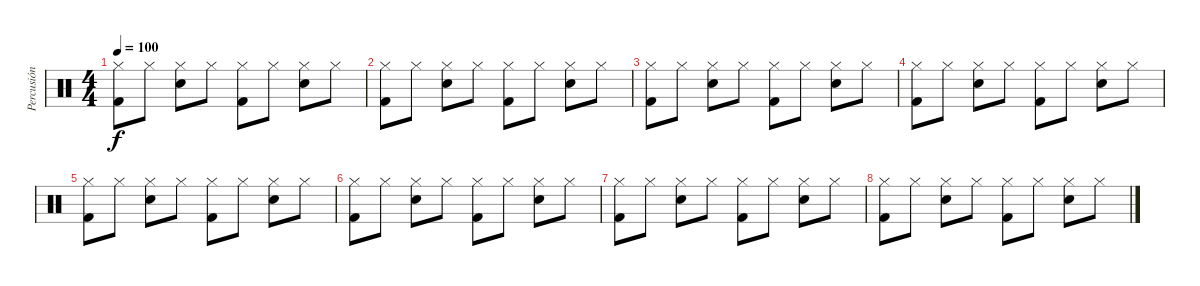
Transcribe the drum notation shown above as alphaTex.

\track ("Percusión" "Percusión") {instrument percussion}
\staff {score}
\articulation defaults
\ts (4 4)
\tempo 100
\clef neutral
\ks c
("Hi-Hat (closed)" "Kick (hit) 2").8{dy f} "Hi-Hat (closed)".8 ("Hi-Hat (closed)" "Electric Snare (hit)").8 "Hi-Hat (closed)".8 ("Hi-Hat (closed)" "Kick (hit) 2").8 "Hi-Hat (closed)".8 ("Hi-Hat (closed)" "Electric Snare (hit)").8 "Hi-Hat (closed)".8 |
("Hi-Hat (closed)" "Kick (hit) 2").8 "Hi-Hat (closed)".8 ("Hi-Hat (closed)" "Electric Snare (hit)").8 "Hi-Hat (closed)".8 ("Hi-Hat (closed)" "Kick (hit) 2").8 "Hi-Hat (closed)".8 ("Hi-Hat (closed)" "Electric Snare (hit)").8 "Hi-Hat (closed)".8 |
("Hi-Hat (closed)" "Kick (hit) 2").8 "Hi-Hat (closed)".8 ("Hi-Hat (closed)" "Electric Snare (hit)").8 "Hi-Hat (closed)".8 ("Hi-Hat (closed)" "Kick (hit) 2").8 "Hi-Hat (closed)".8 ("Hi-Hat (closed)" "Electric Snare (hit)").8 "Hi-Hat (closed)".8 |
("Hi-Hat (closed)" "Kick (hit) 2").8 "Hi-Hat (closed)".8 ("Hi-Hat (closed)" "Electric Snare (hit)").8 "Hi-Hat (closed)".8 ("Hi-Hat (closed)" "Kick (hit) 2").8 "Hi-Hat (closed)".8 ("Hi-Hat (closed)" "Electric Snare (hit)").8 "Hi-Hat (closed)".8 |
("Hi-Hat (closed)" "Kick (hit) 2").8 "Hi-Hat (closed)".8 ("Hi-Hat (closed)" "Electric Snare (hit)").8 "Hi-Hat (closed)".8 ("Hi-Hat (closed)" "Kick (hit) 2").8 "Hi-Hat (closed)".8 ("Hi-Hat (closed)" "Electric Snare (hit)").8 "Hi-Hat (closed)".8 |
("Hi-Hat (closed)" "Kick (hit) 2").8 "Hi-Hat (closed)".8 ("Hi-Hat (closed)" "Electric Snare (hit)").8 "Hi-Hat (closed)".8 ("Hi-Hat (closed)" "Kick (hit) 2").8 "Hi-Hat (closed)".8 ("Hi-Hat (closed)" "Electric Snare (hit)").8 "Hi-Hat (closed)".8 |
("Hi-Hat (closed)" "Kick (hit) 2").8 "Hi-Hat (closed)".8 ("Hi-Hat (closed)" "Electric Snare (hit)").8 "Hi-Hat (closed)".8 ("Hi-Hat (closed)" "Kick (hit) 2").8 "Hi-Hat (closed)".8 ("Hi-Hat (closed)" "Electric Snare (hit)").8 "Hi-Hat (closed)".8 |
("Hi-Hat (closed)" "Kick (hit) 2").8 "Hi-Hat (closed)".8 ("Hi-Hat (closed)" "Electric Snare (hit)").8 "Hi-Hat (closed)".8 ("Hi-Hat (closed)" "Kick (hit) 2").8 "Hi-Hat (closed)".8 ("Hi-Hat (closed)" "Electric Snare (hit)").8 "Hi-Hat (closed)".8
